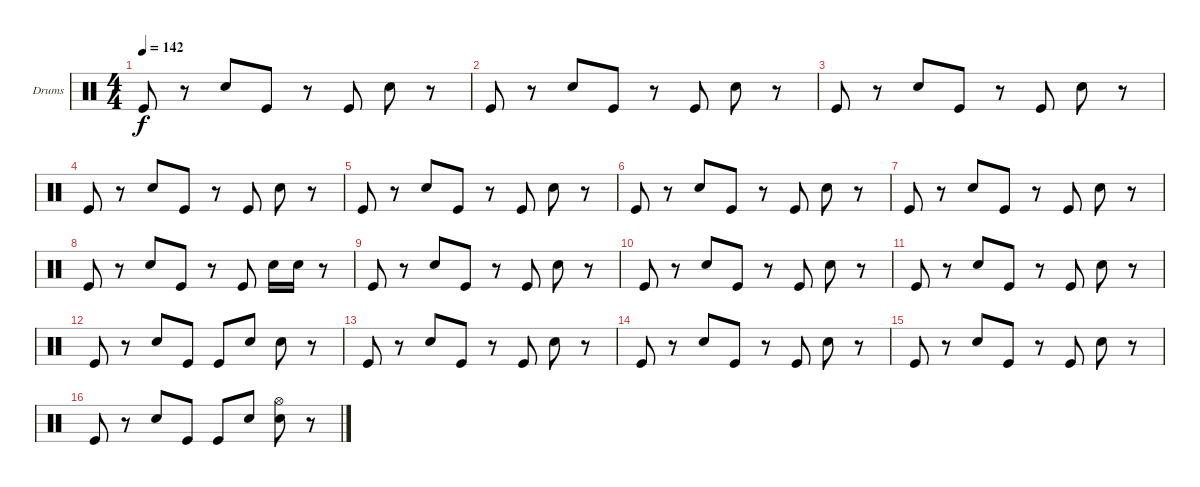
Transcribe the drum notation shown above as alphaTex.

\bracketExtendMode groupsimilarinstruments
\firstSystemTrackNameOrientation horizontal
\otherSystemsTrackNameOrientation horizontal
\track ("Drumkit" "Drums") {instrument percussion}
\staff {score}
\articulation defaults
\ts (4 4)
\tempo 142
\clef neutral
\ks c "Kick (hit)".8{dy f}
r.8 "Snare (hit) 2".8 "Kick (hit)".8 r.8 "Kick (hit)".8 "Snare (hit) 2".8 r.8 |
"Kick (hit)".8 r.8 "Snare (hit) 2".8 "Kick (hit)".8 r.8 "Kick (hit)".8 "Snare (hit) 2".8 r.8 |
"Kick (hit)".8 r.8 "Snare (hit) 2".8 "Kick (hit)".8 r.8 "Kick (hit)".8 "Snare (hit) 2".8 r.8 |
"Kick (hit)".8 r.8 "Snare (hit) 2".8 "Kick (hit)".8 r.8 "Kick (hit)".8 "Snare (hit) 2".8 r.8 |
"Kick (hit)".8 r.8 "Snare (hit) 2".8 "Kick (hit)".8 r.8 "Kick (hit)".8 "Snare (hit) 2".8 r.8 |
"Kick (hit)".8 r.8 "Snare (hit) 2".8 "Kick (hit)".8 r.8 "Kick (hit)".8 "Snare (hit) 2".8 r.8 |
"Kick (hit)".8 r.8 "Snare (hit) 2".8 "Kick (hit)".8 r.8 "Kick (hit)".8 "Snare (hit) 2".8 r.8 |
"Kick (hit)".8 r.8 "Snare (hit) 2".8 "Kick (hit)".8 r.8 "Kick (hit)".8 "Snare (hit) 2".16 "Snare (hit) 2".16 r.8 |
"Kick (hit)".8 r.8 "Snare (hit) 2".8 "Kick (hit)".8 r.8 "Kick (hit)".8 "Snare (hit) 2".8 r.8 |
"Kick (hit)".8 r.8 "Snare (hit) 2".8 "Kick (hit)".8 r.8 "Kick (hit)".8 "Snare (hit) 2".8 r.8 |
"Kick (hit)".8 r.8 "Snare (hit) 2".8 "Kick (hit)".8 r.8 "Kick (hit)".8 "Snare (hit) 2".8 r.8 |
"Kick (hit)".8 r.8 "Snare (hit) 2".8 "Kick (hit)".8 "Kick (hit)".8 "Snare (hit) 2".8 "Snare (hit) 2".8 r.8 |
"Kick (hit)".8 r.8 "Snare (hit) 2".8 "Kick (hit)".8 r.8 "Kick (hit)".8 "Snare (hit) 2".8 r.8 |
"Kick (hit)".8 r.8 "Snare (hit) 2".8 "Kick (hit)".8 r.8 "Kick (hit)".8 "Snare (hit) 2".8 r.8 |
"Kick (hit)".8 r.8 "Snare (hit) 2".8 "Kick (hit)".8 r.8 "Kick (hit)".8 "Snare (hit) 2".8 r.8 |
"Kick (hit)".8 r.8 "Snare (hit) 2".8 "Kick (hit)".8 "Kick (hit)".8 "Snare (hit) 2".8 ("Snare (hit) 2" "Hi-Hat (open)").8 r.8
